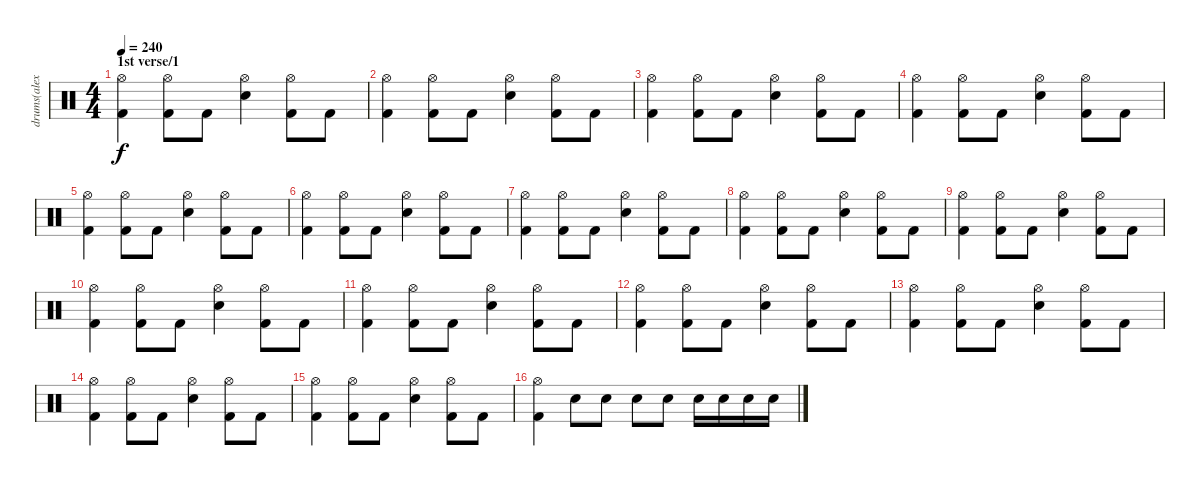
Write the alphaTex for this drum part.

\track ("drums(alex holzshwart)" "drums(alex") {instrument percussion}
\staff {score}
\articulation defaults
\ts (4 4)
\section ("" "1st verse/1")
\tempo 240
\clef neutral
\ks c
("Hi-Hat (open)" "Kick (hit) 2").4{dy f} ("Hi-Hat (open)" "Kick (hit) 2").8 "Kick (hit) 2".8 ("Hi-Hat (open)" "Electric Snare (hit)").4 ("Hi-Hat (open)" "Kick (hit) 2").8 "Kick (hit) 2".8 |
("Hi-Hat (open)" "Kick (hit) 2").4 ("Hi-Hat (open)" "Kick (hit) 2").8 "Kick (hit) 2".8 ("Hi-Hat (open)" "Electric Snare (hit)").4 ("Hi-Hat (open)" "Kick (hit) 2").8 "Kick (hit) 2".8 |
("Hi-Hat (open)" "Kick (hit) 2").4 ("Hi-Hat (open)" "Kick (hit) 2").8 "Kick (hit) 2".8 ("Hi-Hat (open)" "Electric Snare (hit)").4 ("Hi-Hat (open)" "Kick (hit) 2").8 "Kick (hit) 2".8 |
("Hi-Hat (open)" "Kick (hit) 2").4 ("Hi-Hat (open)" "Kick (hit) 2").8 "Kick (hit) 2".8 ("Hi-Hat (open)" "Electric Snare (hit)").4 ("Hi-Hat (open)" "Kick (hit) 2").8 "Kick (hit) 2".8 |
("Hi-Hat (open)" "Kick (hit) 2").4 ("Hi-Hat (open)" "Kick (hit) 2").8 "Kick (hit) 2".8 ("Hi-Hat (open)" "Electric Snare (hit)").4 ("Hi-Hat (open)" "Kick (hit) 2").8 "Kick (hit) 2".8 |
("Hi-Hat (open)" "Kick (hit) 2").4 ("Hi-Hat (open)" "Kick (hit) 2").8 "Kick (hit) 2".8 ("Hi-Hat (open)" "Electric Snare (hit)").4 ("Hi-Hat (open)" "Kick (hit) 2").8 "Kick (hit) 2".8 |
("Hi-Hat (open)" "Kick (hit) 2").4 ("Hi-Hat (open)" "Kick (hit) 2").8 "Kick (hit) 2".8 ("Hi-Hat (open)" "Electric Snare (hit)").4 ("Hi-Hat (open)" "Kick (hit) 2").8 "Kick (hit) 2".8 |
("Hi-Hat (open)" "Kick (hit) 2").4 ("Hi-Hat (open)" "Kick (hit) 2").8 "Kick (hit) 2".8 ("Hi-Hat (open)" "Electric Snare (hit)").4 ("Hi-Hat (open)" "Kick (hit) 2").8 "Kick (hit) 2".8 |
("Hi-Hat (open)" "Kick (hit) 2").4 ("Hi-Hat (open)" "Kick (hit) 2").8 "Kick (hit) 2".8 ("Hi-Hat (open)" "Electric Snare (hit)").4 ("Hi-Hat (open)" "Kick (hit) 2").8 "Kick (hit) 2".8 |
("Hi-Hat (open)" "Kick (hit) 2").4 ("Hi-Hat (open)" "Kick (hit) 2").8 "Kick (hit) 2".8 ("Hi-Hat (open)" "Electric Snare (hit)").4 ("Hi-Hat (open)" "Kick (hit) 2").8 "Kick (hit) 2".8 |
("Hi-Hat (open)" "Kick (hit) 2").4 ("Hi-Hat (open)" "Kick (hit) 2").8 "Kick (hit) 2".8 ("Hi-Hat (open)" "Electric Snare (hit)").4 ("Hi-Hat (open)" "Kick (hit) 2").8 "Kick (hit) 2".8 |
("Hi-Hat (open)" "Kick (hit) 2").4 ("Hi-Hat (open)" "Kick (hit) 2").8 "Kick (hit) 2".8 ("Hi-Hat (open)" "Electric Snare (hit)").4 ("Hi-Hat (open)" "Kick (hit) 2").8 "Kick (hit) 2".8 |
("Hi-Hat (open)" "Kick (hit) 2").4 ("Hi-Hat (open)" "Kick (hit) 2").8 "Kick (hit) 2".8 ("Hi-Hat (open)" "Electric Snare (hit)").4 ("Hi-Hat (open)" "Kick (hit) 2").8 "Kick (hit) 2".8 |
("Hi-Hat (open)" "Kick (hit) 2").4 ("Hi-Hat (open)" "Kick (hit) 2").8 "Kick (hit) 2".8 ("Hi-Hat (open)" "Electric Snare (hit)").4 ("Hi-Hat (open)" "Kick (hit) 2").8 "Kick (hit) 2".8 |
("Hi-Hat (open)" "Kick (hit) 2").4 ("Hi-Hat (open)" "Kick (hit) 2").8 "Kick (hit) 2".8 ("Hi-Hat (open)" "Electric Snare (hit)").4 ("Hi-Hat (open)" "Kick (hit) 2").8 "Kick (hit) 2".8 |
("Hi-Hat (open)" "Kick (hit) 2").4 "Electric Snare (hit)".8 "Electric Snare (hit)".8 "Electric Snare (hit)".8 "Electric Snare (hit)".8 "Electric Snare (hit)".16 "Electric Snare (hit)".16 "Electric Snare (hit)".16 "Electric Snare (hit)".16
